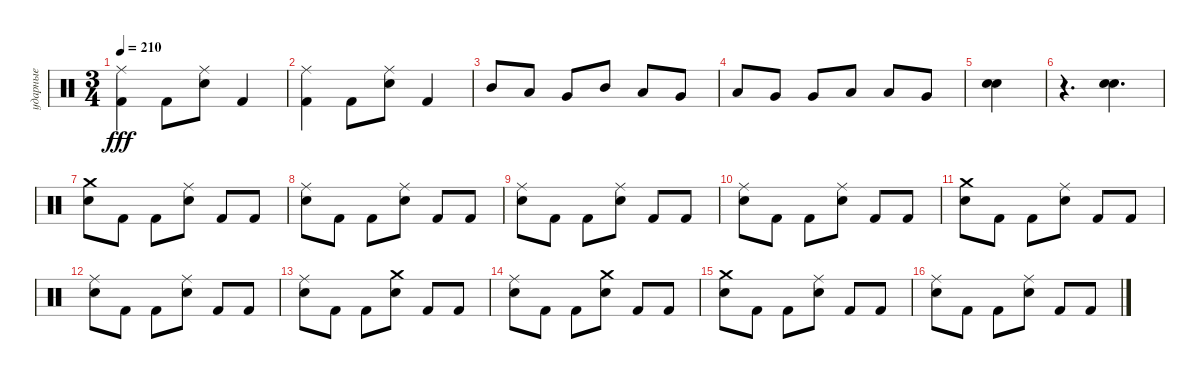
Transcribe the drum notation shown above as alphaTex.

\track ("ударные" "ударные") {instrument percussion}
\staff {score}
\articulation defaults
\ts (3 4)
\tempo 210
\clef neutral
\ks c
("Ride (middle)" "Kick (hit) 2").4{dy fff} "Kick (hit) 2".8 ("Ride (middle)" "Snare (hit) 2").8 "Kick (hit) 2".4 |
("Ride (middle)" "Kick (hit) 2").4 "Kick (hit) 2".8 ("Ride (middle)" "Snare (hit) 2").8 "Kick (hit) 2".4 |
"Mid Tom (hit)".8 "Low Tom (hit)".8 "Very Low Tom (hit)".8 "Mid Tom (hit)".8 "Low Tom (hit)".8 "Very Low Tom (hit)".8 |
"Low Tom (hit)".8 "Very Low Tom (hit)".8 "Very Low Tom (hit)".8 "Low Tom (hit)".8 "Low Tom (hit)".8 "Very Low Tom (hit)".8 |
("Snare (hit) 2" "Snare (hit) 2").4{bd 240} |
r.4{d} ("Snare (hit) 2" "Snare (hit) 2").4{d bd 120} |
("Crash medium (hit)" "Snare (hit) 2").8 "Kick (hit) 2".8 "Kick (hit) 2".8 ("Ride (middle)" "Snare (hit) 2").8 "Kick (hit) 2".8 "Kick (hit) 2".8 |
("Ride (middle)" "Snare (hit) 2").8 "Kick (hit) 2".8 "Kick (hit) 2".8 ("Ride (middle)" "Snare (hit) 2").8 "Kick (hit) 2".8 "Kick (hit) 2".8 |
("Ride (middle)" "Snare (hit) 2").8 "Kick (hit) 2".8 "Kick (hit) 2".8 ("Ride (middle)" "Snare (hit) 2").8 "Kick (hit) 2".8 "Kick (hit) 2".8 |
("Ride (middle)" "Snare (hit) 2").8 "Kick (hit) 2".8 "Kick (hit) 2".8 ("Ride (middle)" "Snare (hit) 2").8 "Kick (hit) 2".8 "Kick (hit) 2".8 |
("Crash medium (hit)" "Snare (hit) 2").8 "Kick (hit) 2".8 "Kick (hit) 2".8 ("Ride (middle)" "Snare (hit) 2").8 "Kick (hit) 2".8 "Kick (hit) 2".8 |
("Ride (middle)" "Snare (hit) 2").8 "Kick (hit) 2".8 "Kick (hit) 2".8 ("Ride (middle)" "Snare (hit) 2").8 "Kick (hit) 2".8 "Kick (hit) 2".8 |
("Ride (middle)" "Snare (hit) 2").8 "Kick (hit) 2".8 "Kick (hit) 2".8 ("Crash medium (hit)" "Snare (hit) 2").8 "Kick (hit) 2".8 "Kick (hit) 2".8 |
("Ride (middle)" "Snare (hit) 2").8 "Kick (hit) 2".8 "Kick (hit) 2".8 ("Crash medium (hit)" "Snare (hit) 2").8 "Kick (hit) 2".8 "Kick (hit) 2".8 |
("Crash medium (hit)" "Snare (hit) 2").8 "Kick (hit) 2".8 "Kick (hit) 2".8 ("Ride (middle)" "Snare (hit) 2").8 "Kick (hit) 2".8 "Kick (hit) 2".8 |
("Ride (middle)" "Snare (hit) 2").8 "Kick (hit) 2".8 "Kick (hit) 2".8 ("Ride (middle)" "Snare (hit) 2").8 "Kick (hit) 2".8 "Kick (hit) 2".8
